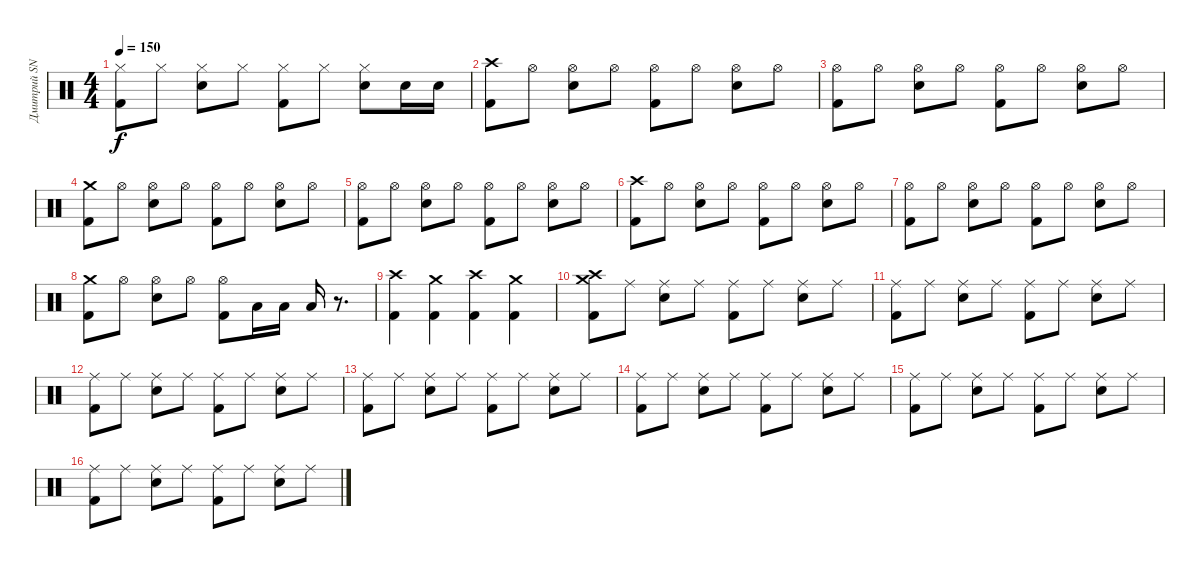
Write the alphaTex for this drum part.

\track ("Дмитрий SNAKE Хакимов" "Дмитрий SN") {instrument percussion}
\staff {score}
\articulation defaults
\ts (4 4)
\tempo 150
\clef neutral
\ks c
("Hi-Hat (closed)" "Kick (hit) 2").8{dy f} "Hi-Hat (closed)".8 ("Hi-Hat (closed)" "Snare (hit) 2").8 "Hi-Hat (closed)".8 ("Hi-Hat (closed)" "Kick (hit) 2").8 "Hi-Hat (closed)".8 ("Hi-Hat (closed)" "Snare (hit) 2").8 "Snare (hit) 2".16 "Snare (hit) 2".16 |
("Crash high (hit)" "Kick (hit) 2").8 "Hi-Hat (open)".8 ("Hi-Hat (open)" "Snare (hit) 2").8 "Hi-Hat (open)".8 ("Hi-Hat (open)" "Kick (hit) 2").8 "Hi-Hat (open)".8 ("Hi-Hat (open)" "Snare (hit) 2").8 "Hi-Hat (open)".8 |
("Hi-Hat (open)" "Kick (hit) 2").8 "Hi-Hat (open)".8 ("Hi-Hat (open)" "Snare (hit) 2").8 "Hi-Hat (open)".8 ("Hi-Hat (open)" "Kick (hit) 2").8 "Hi-Hat (open)".8 ("Hi-Hat (open)" "Snare (hit) 2").8 "Hi-Hat (open)".8 |
("Crash medium (hit)" "Kick (hit) 2").8 "Hi-Hat (open)".8 ("Hi-Hat (open)" "Snare (hit) 2").8 "Hi-Hat (open)".8 ("Hi-Hat (open)" "Kick (hit) 2").8 "Hi-Hat (open)".8 ("Hi-Hat (open)" "Snare (hit) 2").8 "Hi-Hat (open)".8 |
("Hi-Hat (open)" "Kick (hit) 2").8 "Hi-Hat (open)".8 ("Hi-Hat (open)" "Snare (hit) 2").8 "Hi-Hat (open)".8 ("Hi-Hat (open)" "Kick (hit) 2").8 "Hi-Hat (open)".8 ("Hi-Hat (open)" "Snare (hit) 2").8 "Hi-Hat (open)".8 |
("Crash high (hit)" "Kick (hit) 2").8 "Hi-Hat (open)".8 ("Hi-Hat (open)" "Snare (hit) 2").8 "Hi-Hat (open)".8 ("Hi-Hat (open)" "Kick (hit) 2").8 "Hi-Hat (open)".8 ("Hi-Hat (open)" "Snare (hit) 2").8 "Hi-Hat (open)".8 |
("Hi-Hat (open)" "Kick (hit) 2").8 "Hi-Hat (open)".8 ("Hi-Hat (open)" "Snare (hit) 2").8 "Hi-Hat (open)".8 ("Hi-Hat (open)" "Kick (hit) 2").8 "Hi-Hat (open)".8 ("Hi-Hat (open)" "Snare (hit) 2").8 "Hi-Hat (open)".8 |
("Crash medium (hit)" "Kick (hit) 2").8 "Hi-Hat (open)".8 ("Hi-Hat (open)" "Snare (hit) 2").8 "Hi-Hat (open)".8 ("Hi-Hat (open)" "Kick (hit) 2").8 "Low Tom (hit)".16 "Low Tom (hit)".16 "Low Tom (hit)".16 r.8{d} |
("Crash high (hit)" "Kick (hit) 2").4 ("Crash medium (hit)" "Kick (hit) 2").4 ("Crash high (hit)" "Kick (hit) 2").4 ("Crash medium (hit)" "Kick (hit) 2").4 |
("Crash high (hit)" "Crash medium (hit)" "Kick (hit) 2").8 "Ride (middle)".8 ("Ride (middle)" "Snare (hit) 2").8 "Ride (middle)".8 ("Ride (middle)" "Kick (hit) 2").8 "Ride (middle)".8 ("Ride (middle)" "Snare (hit) 2").8 "Ride (middle)".8 |
("Ride (middle)" "Kick (hit) 2").8 "Ride (middle)".8 ("Ride (middle)" "Snare (hit) 2").8 "Ride (middle)".8 ("Ride (middle)" "Kick (hit) 2").8 "Ride (middle)".8 ("Ride (middle)" "Snare (hit) 2").8 "Ride (middle)".8 |
("Ride (middle)" "Kick (hit) 2").8 "Ride (middle)".8 ("Ride (middle)" "Snare (hit) 2").8 "Ride (middle)".8 ("Ride (middle)" "Kick (hit) 2").8 "Ride (middle)".8 ("Ride (middle)" "Snare (hit) 2").8 "Ride (middle)".8 |
("Ride (middle)" "Kick (hit) 2").8 "Ride (middle)".8 ("Ride (middle)" "Snare (hit) 2").8 "Ride (middle)".8 ("Ride (middle)" "Kick (hit) 2").8 "Ride (middle)".8 ("Ride (middle)" "Snare (hit) 2").8 "Ride (middle)".8 |
("Ride (middle)" "Kick (hit) 2").8 "Ride (middle)".8 ("Ride (middle)" "Snare (hit) 2").8 "Ride (middle)".8 ("Ride (middle)" "Kick (hit) 2").8 "Ride (middle)".8 ("Ride (middle)" "Snare (hit) 2").8 "Ride (middle)".8 |
("Ride (middle)" "Kick (hit) 2").8 "Ride (middle)".8 ("Ride (middle)" "Snare (hit) 2").8 "Ride (middle)".8 ("Ride (middle)" "Kick (hit) 2").8 "Ride (middle)".8 ("Ride (middle)" "Snare (hit) 2").8 "Ride (middle)".8 |
("Ride (middle)" "Kick (hit) 2").8 "Ride (middle)".8 ("Ride (middle)" "Snare (hit) 2").8 "Ride (middle)".8 ("Ride (middle)" "Kick (hit) 2").8 "Ride (middle)".8 ("Ride (middle)" "Snare (hit) 2").8 "Ride (middle)".8
